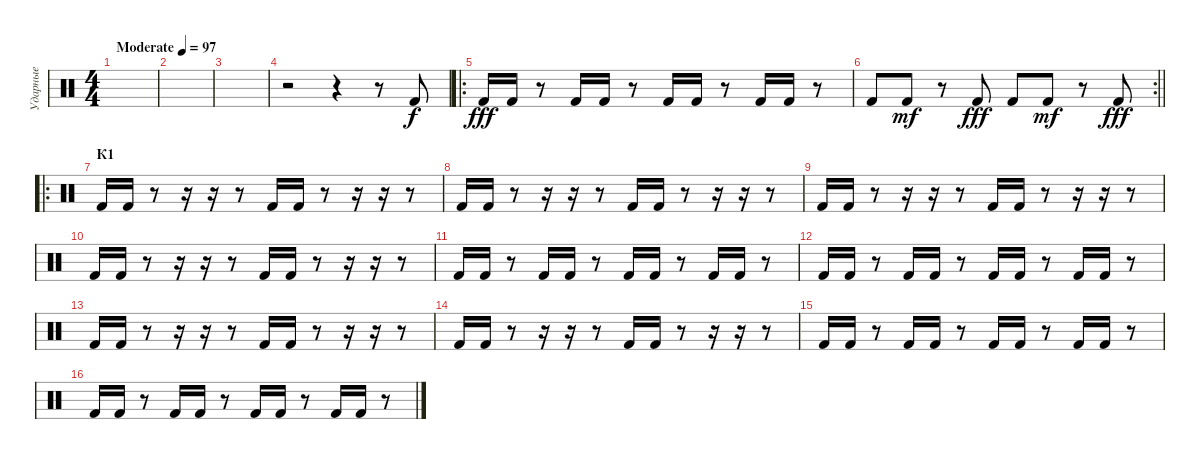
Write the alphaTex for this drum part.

\track ("Ударные" "Ударные") {instrument percussion}
\staff {score}
\articulation defaults
\ts (4 4)
\tempo (97 "Moderate")
\clef neutral
\ks c
|
|
|
r.2 r.4 r.8 "Kick (hit) 2".8{volume 16} |
\ro "Kick (hit) 2".16{dy fff} "Kick (hit) 2".16
r.8 "Kick (hit) 2".16 "Kick (hit) 2".16 r.8 "Kick (hit) 2".16 "Kick (hit) 2".16 r.8 "Kick (hit) 2".16 "Kick (hit) 2".16 r.8 |
\rc 2
\barLineRight lightlight "Kick (hit) 2".8 "Kick (hit) 2".8{dy mf}
r.8 "Kick (hit) 2".8{dy fff} "Kick (hit) 2".8 "Kick (hit) 2".8{dy mf} r.8 "Kick (hit) 2".8{dy fff} |
\ro
\section ("" "К1")
"Kick (hit) 2".16 "Kick (hit) 2".16 r.8 r.16 r.16 r.8 "Kick (hit) 2".16 "Kick (hit) 2".16 r.8 r.16 r.16 r.8 |
"Kick (hit) 2".16 "Kick (hit) 2".16 r.8 r.16 r.16 r.8 "Kick (hit) 2".16 "Kick (hit) 2".16 r.8 r.16 r.16 r.8 |
"Kick (hit) 2".16 "Kick (hit) 2".16 r.8 r.16 r.16 r.8 "Kick (hit) 2".16 "Kick (hit) 2".16 r.8 r.16 r.16 r.8 |
"Kick (hit) 2".16 "Kick (hit) 2".16 r.8 r.16 r.16 r.8 "Kick (hit) 2".16 "Kick (hit) 2".16 r.8 r.16 r.16 r.8 |
"Kick (hit) 2".16 "Kick (hit) 2".16 r.8 "Kick (hit) 2".16 "Kick (hit) 2".16 r.8 "Kick (hit) 2".16 "Kick (hit) 2".16 r.8 "Kick (hit) 2".16 "Kick (hit) 2".16 r.8 |
"Kick (hit) 2".16 "Kick (hit) 2".16 r.8 "Kick (hit) 2".16 "Kick (hit) 2".16 r.8 "Kick (hit) 2".16 "Kick (hit) 2".16 r.8 "Kick (hit) 2".16 "Kick (hit) 2".16 r.8 |
"Kick (hit) 2".16 "Kick (hit) 2".16 r.8 r.16 r.16 r.8 "Kick (hit) 2".16 "Kick (hit) 2".16 r.8 r.16 r.16 r.8 |
"Kick (hit) 2".16 "Kick (hit) 2".16 r.8 r.16 r.16 r.8 "Kick (hit) 2".16 "Kick (hit) 2".16 r.8 r.16 r.16 r.8 |
"Kick (hit) 2".16 "Kick (hit) 2".16 r.8 "Kick (hit) 2".16 "Kick (hit) 2".16 r.8 "Kick (hit) 2".16 "Kick (hit) 2".16 r.8 "Kick (hit) 2".16 "Kick (hit) 2".16 r.8 |
"Kick (hit) 2".16 "Kick (hit) 2".16 r.8 "Kick (hit) 2".16 "Kick (hit) 2".16 r.8 "Kick (hit) 2".16 "Kick (hit) 2".16 r.8 "Kick (hit) 2".16 "Kick (hit) 2".16 r.8
